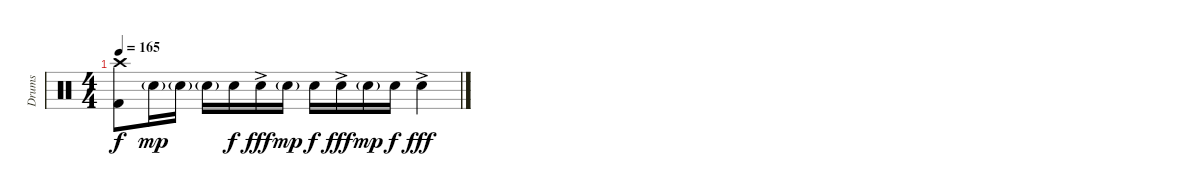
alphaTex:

\track ("Drums" "Drums") {instrument percussion}
\staff {score}
\articulation defaults
\ts (4 4)
\tempo 165
\clef neutral
\ks c
("Crash high (hit)" "Kick (hit) 2").8{dy f} "Snare (hit) 2"{g}.16{dy mp} "Snare (hit) 2"{g}.16 "Snare (hit) 2"{g}.16 "Snare (hit) 2".16{dy f} "Snare (hit) 2"{ac}.16{dy fff} "Snare (hit) 2"{g}.16{dy mp} "Snare (hit) 2".16{dy f} "Snare (hit) 2"{ac}.16{dy fff} "Snare (hit) 2"{g}.16{dy mp} "Snare (hit) 2".16{dy f} "Snare (hit) 2"{ac}.4{dy fff}
